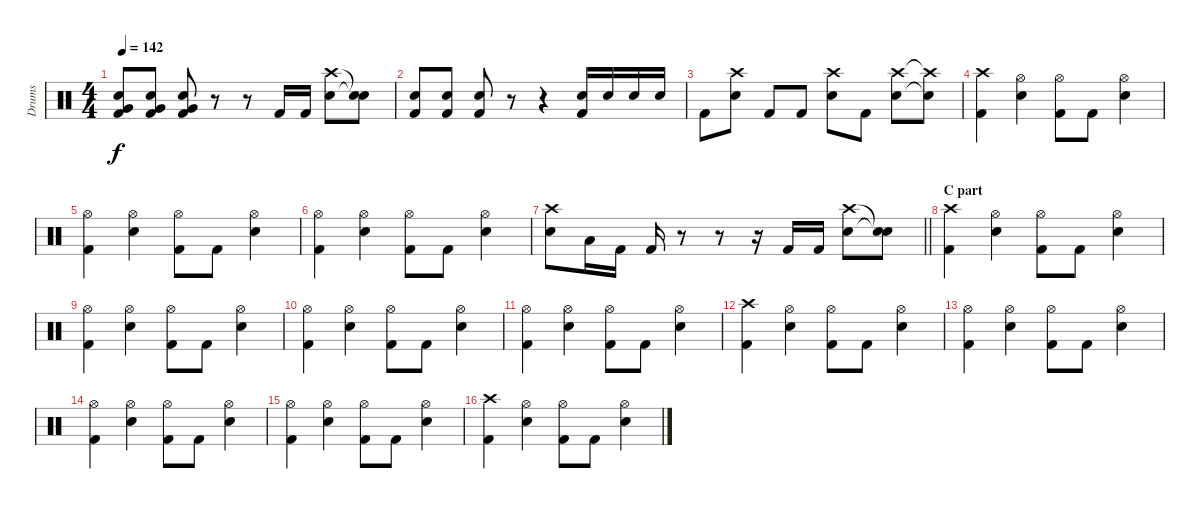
\track ("Drums" "Drums") {instrument percussion}
\staff {score}
\articulation defaults
\ts (4 4)
\tempo 142
\clef neutral
\ks c
("Very Low Tom (hit)" "Snare (hit) 2" "Kick (hit) 2").8{dy f} ("Very Low Tom (hit)" "Snare (hit) 2" "Kick (hit) 2").8 ("Very Low Tom (hit)" "Snare (hit) 2" "Kick (hit) 2").8 r.8 r.8 "Kick (hit) 2".16 "Kick (hit) 2".16 ("Crash high (hit)" "Snare (hit) 2").8 ("Snare (hit)"{t} "Snare (hit)"{t}).8 |
("Snare (hit) 2" "Kick (hit) 2").8 ("Snare (hit) 2" "Kick (hit) 2").8 ("Snare (hit) 2" "Kick (hit) 2").8 r.8 r.4 ("Snare (hit) 2" "Kick (hit) 2").16 "Snare (hit) 2".16 "Snare (hit) 2".16 "Snare (hit) 2".16 |
"Kick (hit) 2".8 ("Crash high (hit)" "Snare (hit) 2").8 "Kick (hit) 2".8 "Kick (hit) 2".8 ("Crash high (hit)" "Snare (hit) 2").8 "Kick (hit) 2".8 ("Crash high (hit)" "Snare (hit) 2").8 ("Crash high (hit)"{t} "Snare (hit)"{t}).8 |
("Crash high (hit)" "Kick (hit) 2").4 ("Hi-Hat (open)" "Snare (hit) 2").4 ("Hi-Hat (open)" "Kick (hit) 2").8 "Kick (hit) 2".8 ("Hi-Hat (open)" "Snare (hit) 2").4 |
("Hi-Hat (open)" "Kick (hit) 2").4 ("Hi-Hat (open)" "Snare (hit) 2").4 ("Hi-Hat (open)" "Kick (hit) 2").8 "Kick (hit) 2".8 ("Hi-Hat (open)" "Snare (hit) 2").4 |
("Hi-Hat (open)" "Kick (hit) 2").4 ("Hi-Hat (open)" "Snare (hit) 2").4 ("Hi-Hat (open)" "Kick (hit) 2").8 "Kick (hit) 2".8 ("Hi-Hat (open)" "Snare (hit) 2").4 |
\barLineRight lightlight
("Crash high (hit)" "Snare (hit) 2").8 "Low Tom (hit)".16 "Kick (hit) 2".16 "Kick (hit) 2".16 r.8 r.8 r.16 "Kick (hit) 2".16 "Kick (hit) 2".16 ("Crash high (hit)" "Snare (hit) 2").8 ("Snare (hit)"{t} "Snare (hit)"{t}).8 |
\section ("" "C part")
("Crash high (hit)" "Kick (hit) 2").4 ("Hi-Hat (open)" "Snare (hit) 2").4 ("Hi-Hat (open)" "Kick (hit) 2").8 "Kick (hit) 2".8 ("Hi-Hat (open)" "Snare (hit) 2").4 |
("Hi-Hat (open)" "Kick (hit) 2").4 ("Hi-Hat (open)" "Snare (hit) 2").4 ("Hi-Hat (open)" "Kick (hit) 2").8 "Kick (hit) 2".8 ("Hi-Hat (open)" "Snare (hit) 2").4 |
("Hi-Hat (open)" "Kick (hit) 2").4 ("Hi-Hat (open)" "Snare (hit) 2").4 ("Hi-Hat (open)" "Kick (hit) 2").8 "Kick (hit) 2".8 ("Hi-Hat (open)" "Snare (hit) 2").4 |
("Hi-Hat (open)" "Kick (hit) 2").4 ("Hi-Hat (open)" "Snare (hit) 2").4 ("Hi-Hat (open)" "Kick (hit) 2").8 "Kick (hit) 2".8 ("Hi-Hat (open)" "Snare (hit) 2").4 |
("Crash high (hit)" "Kick (hit) 2").4 ("Hi-Hat (open)" "Snare (hit) 2").4 ("Hi-Hat (open)" "Kick (hit) 2").8 "Kick (hit) 2".8 ("Hi-Hat (open)" "Snare (hit) 2").4 |
("Hi-Hat (open)" "Kick (hit) 2").4 ("Hi-Hat (open)" "Snare (hit) 2").4 ("Hi-Hat (open)" "Kick (hit) 2").8 "Kick (hit) 2".8 ("Hi-Hat (open)" "Snare (hit) 2").4 |
("Hi-Hat (open)" "Kick (hit) 2").4 ("Hi-Hat (open)" "Snare (hit) 2").4 ("Hi-Hat (open)" "Kick (hit) 2").8 "Kick (hit) 2".8 ("Hi-Hat (open)" "Snare (hit) 2").4 |
("Hi-Hat (open)" "Kick (hit) 2").4 ("Hi-Hat (open)" "Snare (hit) 2").4 ("Hi-Hat (open)" "Kick (hit) 2").8 "Kick (hit) 2".8 ("Hi-Hat (open)" "Snare (hit) 2").4 |
("Crash high (hit)" "Kick (hit) 2").4 ("Hi-Hat (open)" "Snare (hit) 2").4 ("Hi-Hat (open)" "Kick (hit) 2").8 "Kick (hit) 2".8 ("Hi-Hat (open)" "Snare (hit) 2").4
